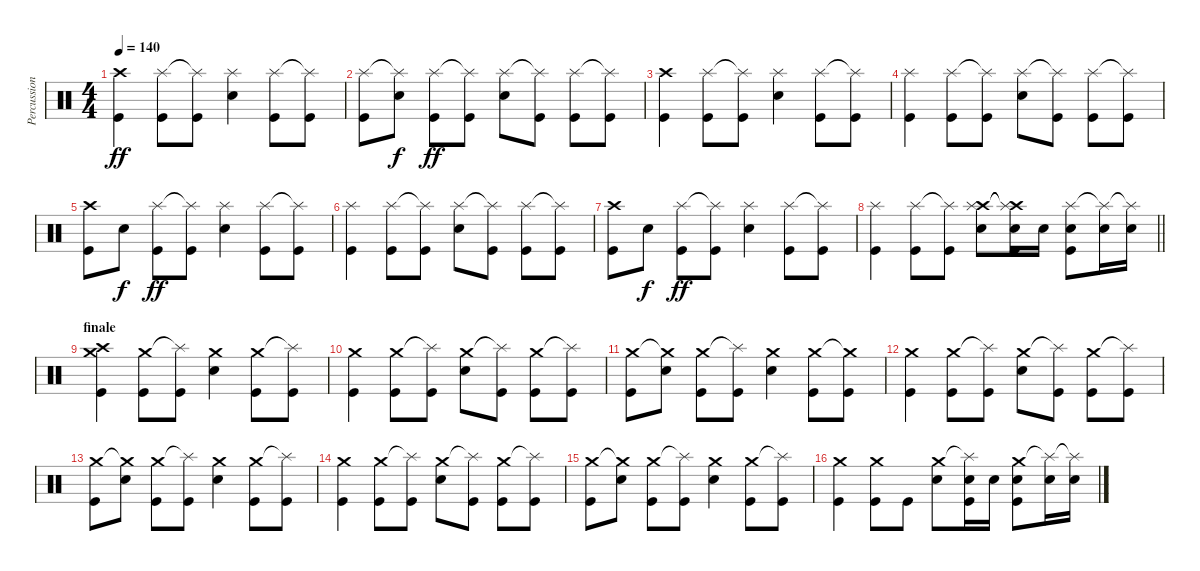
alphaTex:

\track ("Percussion" "Percussion") {instrument percussion}
\staff {score}
\articulation defaults
\ts (4 4)
\tempo 140
\clef neutral
\ks c
("Crash high (hit)" "Kick (hit)").4{dy ff} ("Splash (hit)" "Kick (hit)").8 ("Splash (hit)"{t} "Kick (hit)").8 ("Splash (hit)" "Electric Snare (hit)").4 ("Splash (hit)" "Kick (hit)").8 ("Splash (hit)"{t} "Kick (hit)").8 |
("Splash (hit)" "Kick (hit)").8 ("Splash (hit)"{t} "Electric Snare (hit)").8{dy f} ("Splash (hit)" "Kick (hit)").8{dy ff} ("Splash (hit)"{t} "Kick (hit)").8 ("Splash (hit)" "Electric Snare (hit)").8 ("Splash (hit)"{t} "Kick (hit)").8 ("Splash (hit)" "Kick (hit)").8 ("Splash (hit)"{t} "Kick (hit)").8 |
("Crash high (hit)" "Kick (hit)").4 ("Splash (hit)" "Kick (hit)").8 ("Splash (hit)"{t} "Kick (hit)").8 ("Splash (hit)" "Electric Snare (hit)").4 ("Splash (hit)" "Kick (hit)").8 ("Splash (hit)"{t} "Kick (hit)").8 |
("Splash (hit)" "Kick (hit)").4 ("Splash (hit)" "Kick (hit)").8 ("Splash (hit)"{t} "Kick (hit)").8 ("Splash (hit)" "Electric Snare (hit)").8 ("Splash (hit)"{t} "Kick (hit)").8 ("Splash (hit)" "Kick (hit)").8 ("Splash (hit)"{t} "Kick (hit)").8 |
("Crash high (hit)" "Kick (hit)").8 "Electric Snare (hit)".8{dy f} ("Splash (hit)" "Kick (hit)").8{dy ff} ("Splash (hit)"{t} "Kick (hit)").8 ("Splash (hit)" "Electric Snare (hit)").4 ("Splash (hit)" "Kick (hit)").8 ("Splash (hit)"{t} "Kick (hit)").8 |
("Splash (hit)" "Kick (hit)").4 ("Splash (hit)" "Kick (hit)").8 ("Splash (hit)"{t} "Kick (hit)").8 ("Splash (hit)" "Electric Snare (hit)").8 ("Splash (hit)"{t} "Kick (hit)").8 ("Splash (hit)" "Kick (hit)").8 ("Splash (hit)"{t} "Kick (hit)").8 |
("Crash high (hit)" "Kick (hit)").8 "Electric Snare (hit)".8{dy f} ("Splash (hit)" "Kick (hit)").8{dy ff} ("Splash (hit)"{t} "Kick (hit)").8 ("Splash (hit)" "Electric Snare (hit)").4 ("Splash (hit)" "Kick (hit)").8 ("Splash (hit)"{t} "Kick (hit)").8 |
\barLineRight lightlight
("Splash (hit)" "Kick (hit)").4 ("Splash (hit)" "Kick (hit)").8 ("Splash (hit)"{t} "Kick (hit)").8 ("Crash high (hit)" "Splash (hit)" "Electric Snare (hit)").8 ("Crash high (hit)"{t} "Splash (hit)"{t} "Electric Snare (hit)" "Kick (hit)").16 "Electric Snare (hit)".16 ("Splash (hit)" "Electric Snare (hit)" "Kick (hit)").8 ("Splash (hit)"{t} "Electric Snare (hit)").16 ("Splash (hit)"{t} "Electric Snare (hit)").16 |
\section ("" "finale")
("Crash high (hit)" "Crash medium (hit)" "Kick (hit)").4 ("Crash medium (hit)" "Kick (hit)").8 ("Splash (hit)"{t} "Kick (hit)").8 ("Crash medium (hit)" "Electric Snare (hit)").4 ("Crash medium (hit)" "Kick (hit)").8 ("Splash (hit)"{t} "Kick (hit)").8 |
("Crash medium (hit)" "Kick (hit)").4 ("Crash medium (hit)" "Kick (hit)").8 ("Splash (hit)"{t} "Kick (hit)").8 ("Crash medium (hit)" "Electric Snare (hit)").8 ("Splash (hit)"{t} "Kick (hit)").8 ("Crash medium (hit)" "Kick (hit)").8 ("Splash (hit)"{t} "Kick (hit)").8 |
("Crash medium (hit)" "Kick (hit)").8 ("Crash medium (hit)"{t} "Electric Snare (hit)").8 ("Crash medium (hit)" "Kick (hit)").8 ("Splash (hit)"{t} "Kick (hit)").8 ("Crash medium (hit)" "Electric Snare (hit)").4 ("Crash medium (hit)" "Kick (hit)").8 ("Crash medium (hit)"{t} "Kick (hit)").8 |
("Crash medium (hit)" "Kick (hit)").4 ("Crash medium (hit)" "Kick (hit)").8 ("Splash (hit)"{t} "Kick (hit)").8 ("Crash medium (hit)" "Electric Snare (hit)").8 ("Splash (hit)"{t} "Kick (hit)").8 ("Crash medium (hit)" "Kick (hit)").8 ("Splash (hit)"{t} "Kick (hit)").8 |
("Crash medium (hit)" "Kick (hit)").8 ("Crash medium (hit)"{t} "Electric Snare (hit)").8 ("Crash medium (hit)" "Kick (hit)").8 ("Splash (hit)"{t} "Kick (hit)").8 ("Crash medium (hit)" "Electric Snare (hit)").4 ("Crash medium (hit)" "Kick (hit)").8 ("Splash (hit)"{t} "Kick (hit)").8 |
("Crash medium (hit)" "Kick (hit)").4 ("Crash medium (hit)" "Kick (hit)").8 ("Splash (hit)"{t} "Kick (hit)").8 ("Crash medium (hit)" "Electric Snare (hit)").8 ("Splash (hit)"{t} "Kick (hit)").8 ("Crash medium (hit)" "Kick (hit)").8 ("Splash (hit)"{t} "Kick (hit)").8 |
("Crash medium (hit)" "Kick (hit)").8 ("Crash medium (hit)"{t} "Electric Snare (hit)").8 ("Crash medium (hit)" "Kick (hit)").8 ("Splash (hit)"{t} "Kick (hit)").8 ("Crash medium (hit)" "Electric Snare (hit)").4 ("Crash medium (hit)" "Kick (hit)").8 ("Splash (hit)"{t} "Kick (hit)").8 |
("Crash medium (hit)" "Kick (hit)").4 ("Crash medium (hit)" "Kick (hit)").8 "Kick (hit)".8 ("Crash medium (hit)" "Electric Snare (hit)").8 ("Splash (hit)"{t} "Electric Snare (hit)" "Kick (hit)").16 "Electric Snare (hit)".16 ("Crash medium (hit)" "Electric Snare (hit)" "Kick (hit)").8 ("Splash (hit)"{t} "Electric Snare (hit)").16 ("Splash (hit)"{t} "Electric Snare (hit)").16
